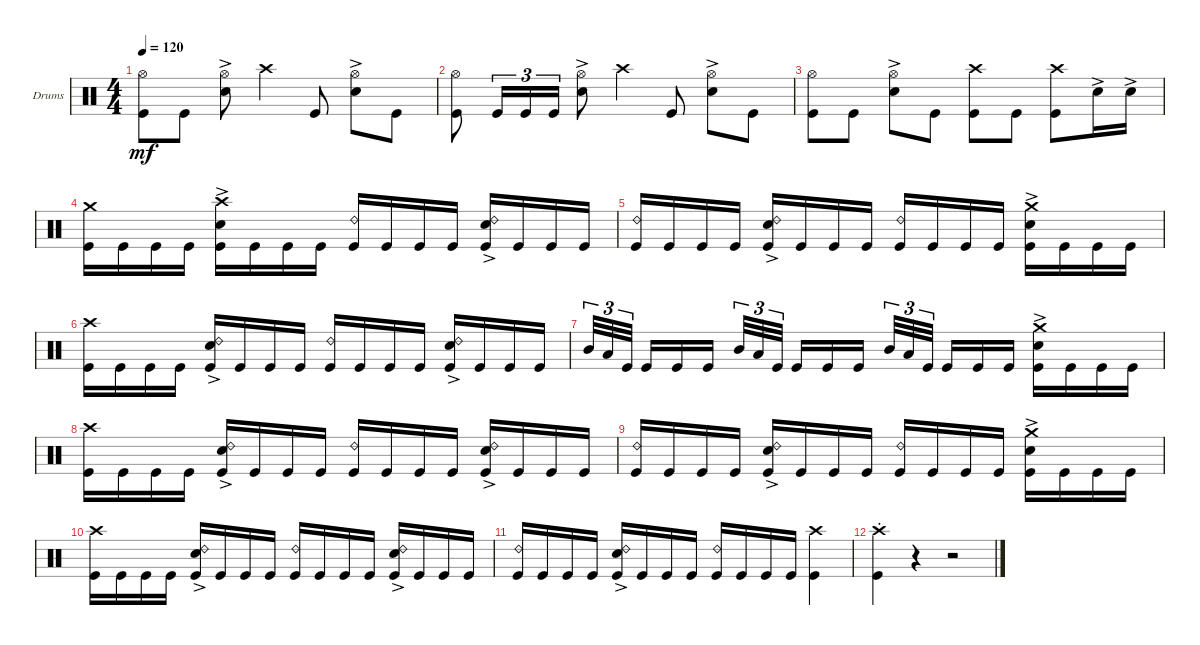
\defaultSystemsLayout 4
\bracketExtendMode groupsimilarinstruments
\firstSystemTrackNameOrientation horizontal
\otherSystemsTrackNameOrientation horizontal
\track ("Drumkit" "Drums") {instrument percussion}
\staff {score}
\articulation defaults
\ts (4 4)
\tempo 120
\clef neutral
\scale
0.333333
\ks c
("Kick (hit)" "Hi-Hat (open)").8{dy mf} "Kick (hit)".8 ("Hi-Hat (open)" "Snare (hit) 2"{ac}).8 "Crash high (hit)".4 "Kick (hit)".8 ("Snare (hit) 2"{ac} "Hi-Hat (open)").8 "Kick (hit)".8 |
\scale
0.333333 ("Kick (hit)" "Hi-Hat (open)").8 "Kick (hit)".16{tu (3 2)} "Kick (hit)".16{tu (3 2)} "Kick (hit)".16{tu (3 2)} ("Hi-Hat (open)" "Snare (hit) 2"{ac}).8 "Crash high (hit)".4 "Kick (hit)".8 ("Snare (hit) 2"{ac} "Hi-Hat (open)").8 "Kick (hit)".8 |
\scale
0.333333 ("Kick (hit)" "Hi-Hat (open)").8 "Kick (hit)".8 ("Hi-Hat (open)" "Snare (hit) 2"{ac}).8 "Kick (hit)".8 ("Kick (hit)" "Crash high (hit)").8 "Kick (hit)".8 ("Kick (hit)" "Crash high (hit)").8 "Snare (hit) 2"{ac}.16 "Snare (hit) 2"{ac}.16 |
\scale
0.333333 ("Kick (hit)" "Crash medium (hit)").16 "Kick (hit)".16 "Kick (hit)".16 "Kick (hit)".16 ("Kick (hit)" "Crash high (hit)" "Snare (hit) 2"{ac}).16 "Kick (hit)".16 "Kick (hit)".16 "Kick (hit)".16 ("Kick (hit)" "Ride (bell) 2").16 "Kick (hit)".16 "Kick (hit)".16 "Kick (hit)".16 ("Kick (hit)" "Ride (bell) 2" "Snare (hit) 2"{ac}).16 "Kick (hit)".16 "Kick (hit)".16 "Kick (hit)".16 |
\scale
0.333333 ("Kick (hit)" "Ride (bell) 2").16 "Kick (hit)".16 "Kick (hit)".16 "Kick (hit)".16 ("Kick (hit)" "Ride (bell) 2" "Snare (hit) 2"{ac}).16 "Kick (hit)".16 "Kick (hit)".16 "Kick (hit)".16 ("Kick (hit)" "Ride (bell) 2").16 "Kick (hit)".16 "Kick (hit)".16 "Kick (hit)".16 ("Kick (hit)" "Crash medium (hit)" "Snare (hit) 2"{ac}).16 "Kick (hit)".16 "Kick (hit)".16 "Kick (hit)".16 |
\scale
0.333333 ("Kick (hit)" "Crash high (hit)").16 "Kick (hit)".16 "Kick (hit)".16 "Kick (hit)".16 ("Kick (hit)" "Ride (bell) 2" "Snare (hit) 2"{ac}).16 "Kick (hit)".16 "Kick (hit)".16 "Kick (hit)".16 ("Kick (hit)" "Ride (bell) 2").16 "Kick (hit)".16 "Kick (hit)".16 "Kick (hit)".16 ("Kick (hit)" "Ride (bell) 2" "Snare (hit) 2"{ac}).16 "Kick (hit)".16 "Kick (hit)".16 "Kick (hit)".16 |
\scale
0.333333 "Mid Tom (hit)".32{tu (3 2)} "Low Tom (hit)".32{tu (3 2)} "Kick (hit)".32{tu (3 2)} "Kick (hit)".16 "Kick (hit)".16 "Kick (hit)".16 "Mid Tom (hit)".32{tu (3 2)} "Low Tom (hit)".32{tu (3 2)} "Kick (hit)".32{tu (3 2)} "Kick (hit)".16 "Kick (hit)".16 "Kick (hit)".16 "Mid Tom (hit)".32{tu (3 2)} "Low Tom (hit)".32{tu (3 2)} "Kick (hit)".32{tu (3 2)} "Kick (hit)".16 "Kick (hit)".16 "Kick (hit)".16 ("Kick (hit)" "Crash medium (hit)" "Snare (hit) 2"{ac}).16 "Kick (hit)".16 "Kick (hit)".16 "Kick (hit)".16 |
\scale
0.333333 ("Kick (hit)" "Crash high (hit)").16 "Kick (hit)".16 "Kick (hit)".16 "Kick (hit)".16 ("Kick (hit)" "Ride (bell) 2" "Snare (hit) 2"{ac}).16 "Kick (hit)".16 "Kick (hit)".16 "Kick (hit)".16 ("Kick (hit)" "Ride (bell) 2").16 "Kick (hit)".16 "Kick (hit)".16 "Kick (hit)".16 ("Kick (hit)" "Ride (bell) 2" "Snare (hit) 2"{ac}).16 "Kick (hit)".16 "Kick (hit)".16 "Kick (hit)".16 |
\scale
0.333333 ("Kick (hit)" "Ride (bell) 2").16 "Kick (hit)".16 "Kick (hit)".16 "Kick (hit)".16 ("Kick (hit)" "Ride (bell) 2" "Snare (hit) 2"{ac}).16 "Kick (hit)".16 "Kick (hit)".16 "Kick (hit)".16 ("Kick (hit)" "Ride (bell) 2").16 "Kick (hit)".16 "Kick (hit)".16 "Kick (hit)".16 ("Kick (hit)" "Crash medium (hit)" "Snare (hit) 2"{ac}).16 "Kick (hit)".16 "Kick (hit)".16 "Kick (hit)".16 |
\scale
0.333333 ("Kick (hit)" "Crash high (hit)").16 "Kick (hit)".16 "Kick (hit)".16 "Kick (hit)".16 ("Kick (hit)" "Ride (bell) 2" "Snare (hit) 2"{ac}).16 "Kick (hit)".16 "Kick (hit)".16 "Kick (hit)".16 ("Kick (hit)" "Ride (bell) 2").16 "Kick (hit)".16 "Kick (hit)".16 "Kick (hit)".16 ("Kick (hit)" "Ride (bell) 2" "Snare (hit) 2"{ac}).16 "Kick (hit)".16 "Kick (hit)".16 "Kick (hit)".16 |
\scale
0.333333 ("Kick (hit)" "Ride (bell) 2").16 "Kick (hit)".16 "Kick (hit)".16 "Kick (hit)".16 ("Kick (hit)" "Snare (hit) 2"{ac} "Ride (bell) 2").16 "Kick (hit)".16 "Kick (hit)".16 "Kick (hit)".16 ("Kick (hit)" "Ride (bell) 2").16 "Kick (hit)".16 "Kick (hit)".16 "Kick (hit)".16 ("Kick (hit)" "Crash high (hit)").4 |
\scale
0.333333 ("Kick (hit)" "Crash high (hit)"{st}).4 r.4 r.2
